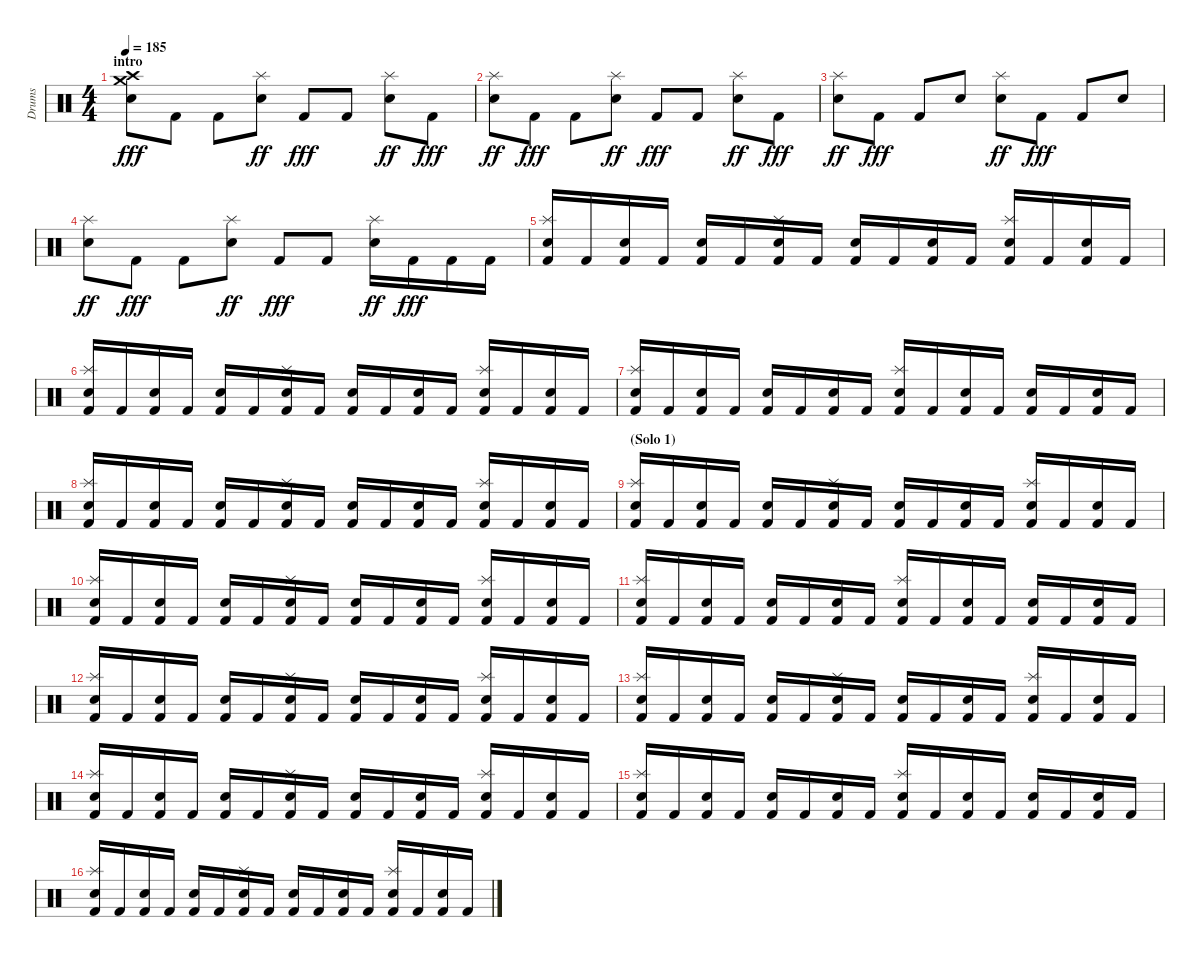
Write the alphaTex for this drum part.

\track ("Drums" "Drums") {instrument percussion}
\staff {score}
\articulation defaults
\ts (4 4)
\section ("" "intro")
\tempo 185
\clef neutral
\ks c
("Crash medium (hit)" "Crash high (hit)" "Electric Snare (hit)").8{dy fff} "Kick (hit) 2".8 "Kick (hit) 2".8 ("Splash (hit)" "Electric Snare (hit)").8{dy ff} "Kick (hit) 2".8{dy fff} "Kick (hit) 2".8 ("Splash (hit)" "Electric Snare (hit)").8{dy ff} "Kick (hit) 2".8{dy fff} |
("Splash (hit)" "Electric Snare (hit)").8{dy ff} "Kick (hit) 2".8{dy fff} "Kick (hit) 2".8 ("Splash (hit)" "Electric Snare (hit)").8{dy ff} "Kick (hit) 2".8{dy fff} "Kick (hit) 2".8 ("Splash (hit)" "Electric Snare (hit)").8{dy ff} "Kick (hit) 2".8{dy fff} |
("Splash (hit)" "Electric Snare (hit)").8{dy ff} "Kick (hit) 2".8{dy fff} "Kick (hit) 2".8 "Electric Snare (hit)".8 ("Splash (hit)" "Electric Snare (hit)").8{dy ff} "Kick (hit) 2".8{dy fff} "Kick (hit) 2".8 "Electric Snare (hit)".8 |
("Splash (hit)" "Electric Snare (hit)").8{dy ff} "Kick (hit) 2".8{dy fff} "Kick (hit) 2".8 ("Splash (hit)" "Electric Snare (hit)").8{dy ff} "Kick (hit) 2".8{dy fff} "Kick (hit) 2".8 ("Splash (hit)" "Electric Snare (hit)").16{dy ff} "Kick (hit) 2".16{dy fff} "Kick (hit) 2".16 "Kick (hit) 2".16 |
("Splash (hit)" "Snare (hit) 2" "Kick (hit) 2").16 "Kick (hit) 2".16 ("Electric Snare (hit)" "Kick (hit) 2").16 "Kick (hit) 2".16 ("Electric Snare (hit)" "Kick (hit) 2").16 "Kick (hit) 2".16 ("Splash (hit)" "Snare (hit) 2" "Kick (hit) 2").16 "Kick (hit) 2".16 ("Electric Snare (hit)" "Kick (hit) 2").16 "Kick (hit) 2".16 ("Electric Snare (hit)" "Kick (hit) 2").16 "Kick (hit) 2".16 ("Splash (hit)" "Snare (hit) 2" "Kick (hit) 2").16 "Kick (hit) 2".16 ("Electric Snare (hit)" "Kick (hit) 2").16 "Kick (hit) 2".16 |
("Splash (hit)" "Snare (hit) 2" "Kick (hit) 2").16 "Kick (hit) 2".16 ("Electric Snare (hit)" "Kick (hit) 2").16 "Kick (hit) 2".16 ("Electric Snare (hit)" "Kick (hit) 2").16 "Kick (hit) 2".16 ("Splash (hit)" "Snare (hit) 2" "Kick (hit) 2").16 "Kick (hit) 2".16 ("Electric Snare (hit)" "Kick (hit) 2").16 "Kick (hit) 2".16 ("Electric Snare (hit)" "Kick (hit) 2").16 "Kick (hit) 2".16 ("Splash (hit)" "Snare (hit) 2" "Kick (hit) 2").16 "Kick (hit) 2".16 ("Electric Snare (hit)" "Kick (hit) 2").16 "Kick (hit) 2".16 |
("Splash (hit)" "Snare (hit) 2" "Kick (hit) 2").16 "Kick (hit) 2".16 ("Electric Snare (hit)" "Kick (hit) 2").16 "Kick (hit) 2".16 ("Electric Snare (hit)" "Kick (hit) 2").16 "Kick (hit) 2".16 ("Snare (hit) 2" "Kick (hit) 2").16 "Kick (hit) 2".16 ("Splash (hit)" "Snare (hit) 2" "Kick (hit) 2").16 "Kick (hit) 2".16 ("Electric Snare (hit)" "Kick (hit) 2").16 "Kick (hit) 2".16 ("Electric Snare (hit)" "Kick (hit) 2").16 "Kick (hit) 2".16 ("Snare (hit) 2" "Kick (hit) 2").16 "Kick (hit) 2".16 |
("Splash (hit)" "Snare (hit) 2" "Kick (hit) 2").16 "Kick (hit) 2".16 ("Electric Snare (hit)" "Kick (hit) 2").16 "Kick (hit) 2".16 ("Electric Snare (hit)" "Kick (hit) 2").16 "Kick (hit) 2".16 ("Splash (hit)" "Snare (hit) 2" "Kick (hit) 2").16 "Kick (hit) 2".16 ("Electric Snare (hit)" "Kick (hit) 2").16 "Kick (hit) 2".16 ("Electric Snare (hit)" "Kick (hit) 2").16 "Kick (hit) 2".16 ("Splash (hit)" "Snare (hit) 2" "Kick (hit) 2").16 "Kick (hit) 2".16 ("Electric Snare (hit)" "Kick (hit) 2").16 "Kick (hit) 2".16 |
\section ("" "(Solo 1)")
("Splash (hit)" "Snare (hit) 2" "Kick (hit) 2").16 "Kick (hit) 2".16 ("Electric Snare (hit)" "Kick (hit) 2").16 "Kick (hit) 2".16 ("Electric Snare (hit)" "Kick (hit) 2").16 "Kick (hit) 2".16 ("Splash (hit)" "Snare (hit) 2" "Kick (hit) 2").16 "Kick (hit) 2".16 ("Electric Snare (hit)" "Kick (hit) 2").16 "Kick (hit) 2".16 ("Electric Snare (hit)" "Kick (hit) 2").16 "Kick (hit) 2".16 ("Splash (hit)" "Snare (hit) 2" "Kick (hit) 2").16 "Kick (hit) 2".16 ("Electric Snare (hit)" "Kick (hit) 2").16 "Kick (hit) 2".16 |
("Splash (hit)" "Snare (hit) 2" "Kick (hit) 2").16 "Kick (hit) 2".16 ("Electric Snare (hit)" "Kick (hit) 2").16 "Kick (hit) 2".16 ("Electric Snare (hit)" "Kick (hit) 2").16 "Kick (hit) 2".16 ("Splash (hit)" "Snare (hit) 2" "Kick (hit) 2").16 "Kick (hit) 2".16 ("Electric Snare (hit)" "Kick (hit) 2").16 "Kick (hit) 2".16 ("Electric Snare (hit)" "Kick (hit) 2").16 "Kick (hit) 2".16 ("Splash (hit)" "Snare (hit) 2" "Kick (hit) 2").16 "Kick (hit) 2".16 ("Electric Snare (hit)" "Kick (hit) 2").16 "Kick (hit) 2".16 |
("Splash (hit)" "Snare (hit) 2" "Kick (hit) 2").16 "Kick (hit) 2".16 ("Electric Snare (hit)" "Kick (hit) 2").16 "Kick (hit) 2".16 ("Electric Snare (hit)" "Kick (hit) 2").16 "Kick (hit) 2".16 ("Snare (hit) 2" "Kick (hit) 2").16 "Kick (hit) 2".16 ("Splash (hit)" "Snare (hit) 2" "Kick (hit) 2").16 "Kick (hit) 2".16 ("Electric Snare (hit)" "Kick (hit) 2").16 "Kick (hit) 2".16 ("Electric Snare (hit)" "Kick (hit) 2").16 "Kick (hit) 2".16 ("Snare (hit) 2" "Kick (hit) 2").16 "Kick (hit) 2".16 |
("Splash (hit)" "Snare (hit) 2" "Kick (hit) 2").16 "Kick (hit) 2".16 ("Electric Snare (hit)" "Kick (hit) 2").16 "Kick (hit) 2".16 ("Electric Snare (hit)" "Kick (hit) 2").16 "Kick (hit) 2".16 ("Splash (hit)" "Snare (hit) 2" "Kick (hit) 2").16 "Kick (hit) 2".16 ("Electric Snare (hit)" "Kick (hit) 2").16 "Kick (hit) 2".16 ("Electric Snare (hit)" "Kick (hit) 2").16 "Kick (hit) 2".16 ("Splash (hit)" "Snare (hit) 2" "Kick (hit) 2").16 "Kick (hit) 2".16 ("Electric Snare (hit)" "Kick (hit) 2").16 "Kick (hit) 2".16 |
("Splash (hit)" "Snare (hit) 2" "Kick (hit) 2").16 "Kick (hit) 2".16 ("Electric Snare (hit)" "Kick (hit) 2").16 "Kick (hit) 2".16 ("Electric Snare (hit)" "Kick (hit) 2").16 "Kick (hit) 2".16 ("Splash (hit)" "Snare (hit) 2" "Kick (hit) 2").16 "Kick (hit) 2".16 ("Electric Snare (hit)" "Kick (hit) 2").16 "Kick (hit) 2".16 ("Electric Snare (hit)" "Kick (hit) 2").16 "Kick (hit) 2".16 ("Splash (hit)" "Snare (hit) 2" "Kick (hit) 2").16 "Kick (hit) 2".16 ("Electric Snare (hit)" "Kick (hit) 2").16 "Kick (hit) 2".16 |
("Splash (hit)" "Snare (hit) 2" "Kick (hit) 2").16 "Kick (hit) 2".16 ("Electric Snare (hit)" "Kick (hit) 2").16 "Kick (hit) 2".16 ("Electric Snare (hit)" "Kick (hit) 2").16 "Kick (hit) 2".16 ("Splash (hit)" "Snare (hit) 2" "Kick (hit) 2").16 "Kick (hit) 2".16 ("Electric Snare (hit)" "Kick (hit) 2").16 "Kick (hit) 2".16 ("Electric Snare (hit)" "Kick (hit) 2").16 "Kick (hit) 2".16 ("Splash (hit)" "Snare (hit) 2" "Kick (hit) 2").16 "Kick (hit) 2".16 ("Electric Snare (hit)" "Kick (hit) 2").16 "Kick (hit) 2".16 |
("Splash (hit)" "Snare (hit) 2" "Kick (hit) 2").16 "Kick (hit) 2".16 ("Electric Snare (hit)" "Kick (hit) 2").16 "Kick (hit) 2".16 ("Electric Snare (hit)" "Kick (hit) 2").16 "Kick (hit) 2".16 ("Snare (hit) 2" "Kick (hit) 2").16 "Kick (hit) 2".16 ("Splash (hit)" "Snare (hit) 2" "Kick (hit) 2").16 "Kick (hit) 2".16 ("Electric Snare (hit)" "Kick (hit) 2").16 "Kick (hit) 2".16 ("Electric Snare (hit)" "Kick (hit) 2").16 "Kick (hit) 2".16 ("Snare (hit) 2" "Kick (hit) 2").16 "Kick (hit) 2".16 |
("Splash (hit)" "Snare (hit) 2" "Kick (hit) 2").16 "Kick (hit) 2".16 ("Electric Snare (hit)" "Kick (hit) 2").16 "Kick (hit) 2".16 ("Electric Snare (hit)" "Kick (hit) 2").16 "Kick (hit) 2".16 ("Splash (hit)" "Snare (hit) 2" "Kick (hit) 2").16 "Kick (hit) 2".16 ("Electric Snare (hit)" "Kick (hit) 2").16 "Kick (hit) 2".16 ("Electric Snare (hit)" "Kick (hit) 2").16 "Kick (hit) 2".16 ("Splash (hit)" "Snare (hit) 2" "Kick (hit) 2").16 "Kick (hit) 2".16 ("Electric Snare (hit)" "Kick (hit) 2").16 "Kick (hit) 2".16
